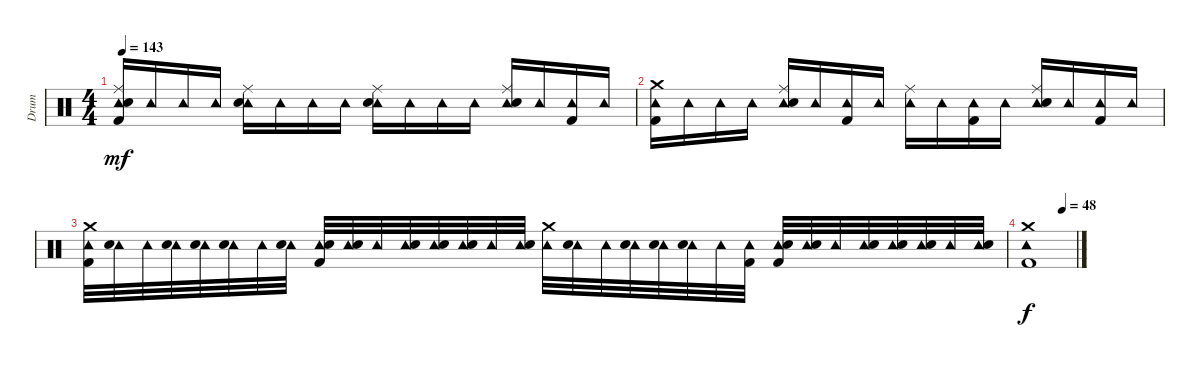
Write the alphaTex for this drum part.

\track ("Drum" "Drum") {instrument percussion}
\staff {score}
\articulation defaults
\ts (4 4)
\tempo 143
\clef neutral
\ks c
("Tambourine (hit)" "Ride (middle)" "Snare (hit) 2" "Kick (hit) 2").16{dy mf} "Tambourine (hit)".16 "Tambourine (hit)".16 "Tambourine (hit)".16 ("Tambourine (hit)" "Ride (middle)" "Snare (hit) 2").16 "Tambourine (hit)".16 "Tambourine (hit)".16 "Tambourine (hit)".16 ("Tambourine (hit)" "Ride (middle)" "Snare (hit) 2").16 "Tambourine (hit)".16 "Tambourine (hit)".16 "Tambourine (hit)".16 ("Tambourine (hit)" "Ride (middle)" "Snare (hit) 2").16 "Tambourine (hit)".16 ("Tambourine (hit)" "Kick (hit) 2").16 "Tambourine (hit)".16 |
("Tambourine (hit)" "Crash medium (hit)" "Kick (hit) 2").16 "Tambourine (hit)".16 "Tambourine (hit)".16 "Tambourine (hit)".16 ("Tambourine (hit)" "Ride (middle)" "Snare (hit) 2").16 "Tambourine (hit)".16 ("Tambourine (hit)" "Kick (hit) 2").16 "Tambourine (hit)".16 ("Tambourine (hit)" "Ride (middle)").16 "Tambourine (hit)".16 ("Tambourine (hit)" "Kick (hit) 2").16 "Tambourine (hit)".16 ("Tambourine (hit)" "Ride (middle)" "Snare (hit) 2").16 "Tambourine (hit)".16 ("Tambourine (hit)" "Kick (hit) 2").16 "Tambourine (hit)".16 |
("Tambourine (hit)" "Crash medium (hit)" "Kick (hit) 2").32 ("Tambourine (hit)" "Snare (hit) 2").32 "Tambourine (hit)".32 ("Tambourine (hit)" "Snare (hit) 2").32 ("Tambourine (hit)" "Snare (hit) 2").32 ("Tambourine (hit)" "Snare (hit) 2").32 "Tambourine (hit)".32 ("Tambourine (hit)" "Snare (hit) 2").32 ("Tambourine (hit)" "Snare (hit) 2" "Kick (hit) 2").32 ("Tambourine (hit)" "Snare (hit) 2").32 "Tambourine (hit)".32 ("Tambourine (hit)" "Snare (hit) 2").32 ("Tambourine (hit)" "Snare (hit) 2").32 ("Tambourine (hit)" "Snare (hit) 2").32 "Tambourine (hit)".32 ("Tambourine (hit)" "Snare (hit) 2").32 ("Tambourine (hit)" "Crash medium (hit)").32 ("Tambourine (hit)" "Snare (hit) 2").32 "Tambourine (hit)".32 ("Tambourine (hit)" "Snare (hit) 2").32 ("Tambourine (hit)" "Snare (hit) 2").32 ("Tambourine (hit)" "Snare (hit) 2").32 "Tambourine (hit)".32 ("Tambourine (hit)" "Kick (hit) 2").32 ("Tambourine (hit)" "Snare (hit) 2" "Kick (hit) 2").32 ("Tambourine (hit)" "Snare (hit) 2").32 "Tambourine (hit)".32 ("Tambourine (hit)" "Snare (hit) 2").32 ("Tambourine (hit)" "Snare (hit) 2").32 ("Tambourine (hit)" "Snare (hit) 2").32 "Tambourine (hit)".32 ("Tambourine (hit)" "Snare (hit) 2").32 |
\tempo (48 0.71875)
("Tambourine (hit)" "Crash medium (hit)" "Kick (hit) 2").1{dy f}
